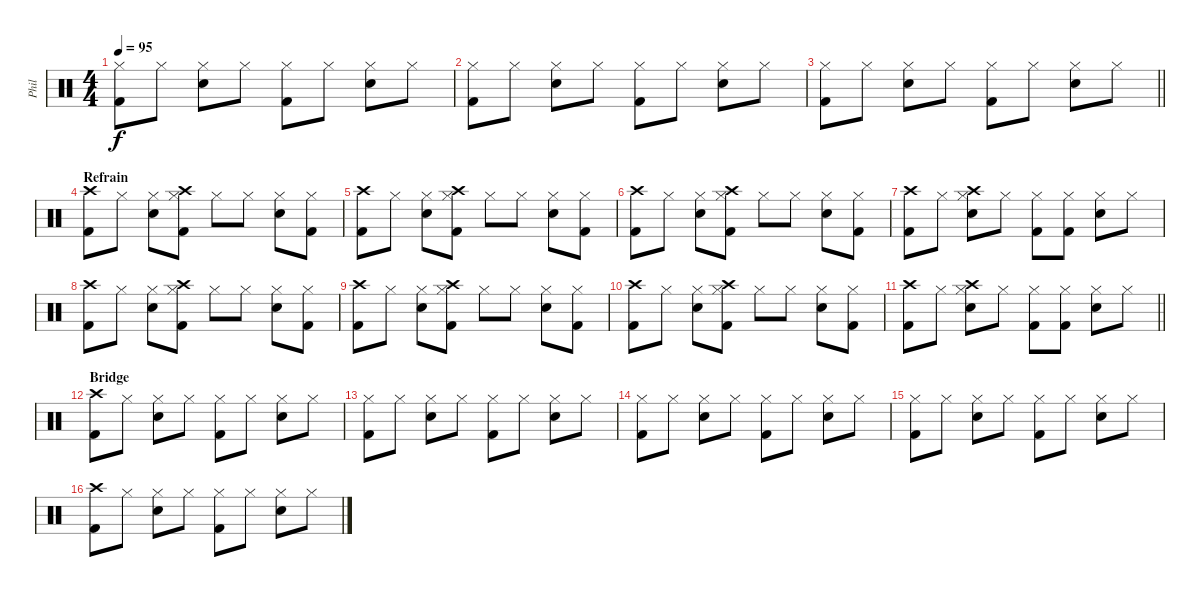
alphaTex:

\track ("Phil" "Phil") {instrument percussion}
\staff {score}
\articulation defaults
\ts (4 4)
\tempo 95
\clef neutral
\ks c
("Kick (hit) 2" "Hi-Hat (closed)").8{dy f} "Hi-Hat (closed)".8 ("Electric Snare (hit)" "Hi-Hat (closed)").8 "Hi-Hat (closed)".8 ("Kick (hit) 2" "Hi-Hat (closed)").8 "Hi-Hat (closed)".8 ("Electric Snare (hit)" "Hi-Hat (closed)").8 "Hi-Hat (closed)".8 |
("Kick (hit) 2" "Hi-Hat (closed)").8 "Hi-Hat (closed)".8 ("Electric Snare (hit)" "Hi-Hat (closed)").8 "Hi-Hat (closed)".8 ("Kick (hit) 2" "Hi-Hat (closed)").8 "Hi-Hat (closed)".8 ("Electric Snare (hit)" "Hi-Hat (closed)").8 "Hi-Hat (closed)".8 |
\barLineRight lightlight
("Kick (hit) 2" "Hi-Hat (closed)").8 "Hi-Hat (closed)".8 ("Electric Snare (hit)" "Hi-Hat (closed)").8 "Hi-Hat (closed)".8 ("Kick (hit) 2" "Hi-Hat (closed)").8 "Hi-Hat (closed)".8 ("Electric Snare (hit)" "Hi-Hat (closed)").8 "Hi-Hat (closed)".8 |
\section ("" "Refrain")
("Kick (hit) 2" "Crash high (hit)").8 "Hi-Hat (closed)".8 ("Electric Snare (hit)" "Hi-Hat (closed)").8 ("Kick (hit) 2" "Hi-Hat (closed)" "Crash high (hit)").8 "Hi-Hat (closed)".8 "Hi-Hat (closed)".8 ("Electric Snare (hit)" "Hi-Hat (closed)").8 ("Kick (hit) 2" "Hi-Hat (closed)").8 |
("Kick (hit) 2" "Crash high (hit)").8 "Hi-Hat (closed)".8 ("Electric Snare (hit)" "Hi-Hat (closed)").8 ("Kick (hit) 2" "Hi-Hat (closed)" "Crash high (hit)").8 "Hi-Hat (closed)".8 "Hi-Hat (closed)".8 ("Electric Snare (hit)" "Hi-Hat (closed)").8 ("Kick (hit) 2" "Hi-Hat (closed)").8 |
("Kick (hit) 2" "Crash high (hit)").8 "Hi-Hat (closed)".8 ("Electric Snare (hit)" "Hi-Hat (closed)").8 ("Kick (hit) 2" "Hi-Hat (closed)" "Crash high (hit)").8 "Hi-Hat (closed)".8 "Hi-Hat (closed)".8 ("Electric Snare (hit)" "Hi-Hat (closed)").8 ("Kick (hit) 2" "Hi-Hat (closed)").8 |
("Kick (hit) 2" "Crash high (hit)").8 "Hi-Hat (closed)".8 ("Electric Snare (hit)" "Hi-Hat (closed)" "Crash high (hit)").8 "Hi-Hat (closed)".8 ("Kick (hit) 2" "Hi-Hat (closed)").8 ("Kick (hit) 2" "Hi-Hat (closed)").8 ("Hi-Hat (closed)" "Electric Snare (hit)").8 "Hi-Hat (closed)".8 |
("Kick (hit) 2" "Crash high (hit)").8 "Hi-Hat (closed)".8 ("Electric Snare (hit)" "Hi-Hat (closed)").8 ("Kick (hit) 2" "Hi-Hat (closed)" "Crash high (hit)").8 "Hi-Hat (closed)".8 "Hi-Hat (closed)".8 ("Electric Snare (hit)" "Hi-Hat (closed)").8 ("Kick (hit) 2" "Hi-Hat (closed)").8 |
("Kick (hit) 2" "Crash high (hit)").8 "Hi-Hat (closed)".8 ("Electric Snare (hit)" "Hi-Hat (closed)").8 ("Kick (hit) 2" "Hi-Hat (closed)" "Crash high (hit)").8 "Hi-Hat (closed)".8 "Hi-Hat (closed)".8 ("Electric Snare (hit)" "Hi-Hat (closed)").8 ("Kick (hit) 2" "Hi-Hat (closed)").8 |
("Kick (hit) 2" "Crash high (hit)").8 "Hi-Hat (closed)".8 ("Electric Snare (hit)" "Hi-Hat (closed)").8 ("Kick (hit) 2" "Hi-Hat (closed)" "Crash high (hit)").8 "Hi-Hat (closed)".8 "Hi-Hat (closed)".8 ("Electric Snare (hit)" "Hi-Hat (closed)").8 ("Kick (hit) 2" "Hi-Hat (closed)").8 |
\barLineRight lightlight
("Kick (hit) 2" "Crash high (hit)").8 "Hi-Hat (closed)".8 ("Electric Snare (hit)" "Hi-Hat (closed)" "Crash high (hit)").8 "Hi-Hat (closed)".8 ("Kick (hit) 2" "Hi-Hat (closed)").8 ("Kick (hit) 2" "Hi-Hat (closed)").8 ("Hi-Hat (closed)" "Electric Snare (hit)").8 "Hi-Hat (closed)".8 |
\section ("" "Bridge")
("Kick (hit) 2" "Crash high (hit)").8 "Hi-Hat (closed)".8 ("Electric Snare (hit)" "Hi-Hat (closed)").8 "Hi-Hat (closed)".8 ("Kick (hit) 2" "Hi-Hat (closed)").8 "Hi-Hat (closed)".8 ("Electric Snare (hit)" "Hi-Hat (closed)").8 "Hi-Hat (closed)".8 |
("Kick (hit) 2" "Hi-Hat (closed)").8 "Hi-Hat (closed)".8 ("Electric Snare (hit)" "Hi-Hat (closed)").8 "Hi-Hat (closed)".8 ("Kick (hit) 2" "Hi-Hat (closed)").8 "Hi-Hat (closed)".8 ("Electric Snare (hit)" "Hi-Hat (closed)").8 "Hi-Hat (closed)".8 |
("Kick (hit) 2" "Hi-Hat (closed)").8 "Hi-Hat (closed)".8 ("Electric Snare (hit)" "Hi-Hat (closed)").8 "Hi-Hat (closed)".8 ("Kick (hit) 2" "Hi-Hat (closed)").8 "Hi-Hat (closed)".8 ("Electric Snare (hit)" "Hi-Hat (closed)").8 "Hi-Hat (closed)".8 |
("Kick (hit) 2" "Hi-Hat (closed)").8 "Hi-Hat (closed)".8 ("Electric Snare (hit)" "Hi-Hat (closed)").8 "Hi-Hat (closed)".8 ("Kick (hit) 2" "Hi-Hat (closed)").8 "Hi-Hat (closed)".8 ("Electric Snare (hit)" "Hi-Hat (closed)").8 "Hi-Hat (closed)".8 |
("Kick (hit) 2" "Crash high (hit)").8 "Hi-Hat (closed)".8 ("Electric Snare (hit)" "Hi-Hat (closed)").8 "Hi-Hat (closed)".8 ("Kick (hit) 2" "Hi-Hat (closed)").8 "Hi-Hat (closed)".8 ("Electric Snare (hit)" "Hi-Hat (closed)").8 "Hi-Hat (closed)".8
